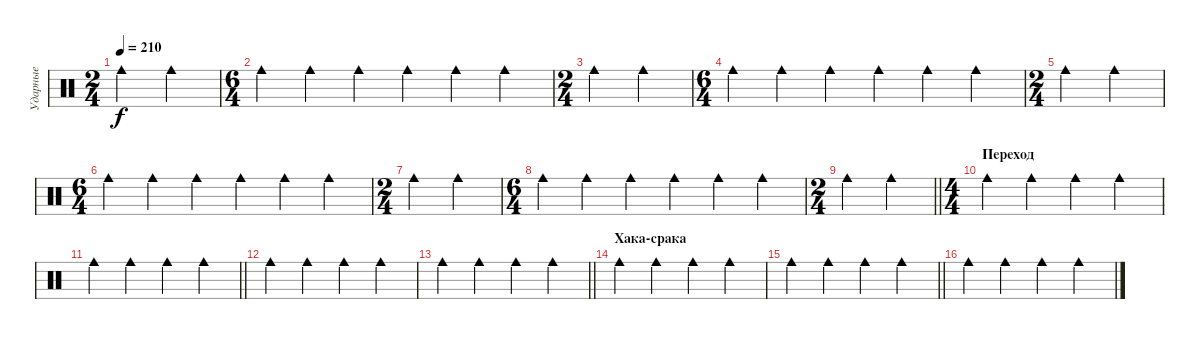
\track ("Ударные" "Ударные") {mute instrument percussion}
\staff {score}
\articulation defaults
\ts (2 4)
\tempo 210
\clef neutral
\ks c "Cowbell medium (hit)".4{dy f} "Cowbell medium (hit)".4
|
\ts (6 4)
"Cowbell medium (hit)".4 "Cowbell medium (hit)".4 "Cowbell medium (hit)".4 "Cowbell medium (hit)".4 "Cowbell medium (hit)".4 "Cowbell medium (hit)".4 |
\ts (2 4)
"Cowbell medium (hit)".4 "Cowbell medium (hit)".4 |
\ts (6 4)
"Cowbell medium (hit)".4 "Cowbell medium (hit)".4 "Cowbell medium (hit)".4 "Cowbell medium (hit)".4 "Cowbell medium (hit)".4 "Cowbell medium (hit)".4 |
\ts (2 4)
"Cowbell medium (hit)".4 "Cowbell medium (hit)".4 |
\ts (6 4)
"Cowbell medium (hit)".4 "Cowbell medium (hit)".4 "Cowbell medium (hit)".4 "Cowbell medium (hit)".4 "Cowbell medium (hit)".4 "Cowbell medium (hit)".4 |
\ts (2 4)
"Cowbell medium (hit)".4 "Cowbell medium (hit)".4 |
\ts (6 4)
"Cowbell medium (hit)".4 "Cowbell medium (hit)".4 "Cowbell medium (hit)".4 "Cowbell medium (hit)".4 "Cowbell medium (hit)".4 "Cowbell medium (hit)".4 |
\ts (2 4)
\barLineRight lightlight "Cowbell medium (hit)".4 "Cowbell medium (hit)".4
|
\ts (4 4)
\section ("" "Переход")
"Cowbell medium (hit)".4 "Cowbell medium (hit)".4 "Cowbell medium (hit)".4 "Cowbell medium (hit)".4 |
\barLineRight lightlight "Cowbell medium (hit)".4 "Cowbell medium (hit)".4 "Cowbell medium (hit)".4 "Cowbell medium (hit)".4
|
"Cowbell medium (hit)".4 "Cowbell medium (hit)".4 "Cowbell medium (hit)".4 "Cowbell medium (hit)".4 |
\barLineRight lightlight "Cowbell medium (hit)".4 "Cowbell medium (hit)".4 "Cowbell medium (hit)".4 "Cowbell medium (hit)".4
|
\section ("" "Хака-срака")
"Cowbell medium (hit)".4 "Cowbell medium (hit)".4 "Cowbell medium (hit)".4 "Cowbell medium (hit)".4 |
\barLineRight lightlight "Cowbell medium (hit)".4 "Cowbell medium (hit)".4 "Cowbell medium (hit)".4 "Cowbell medium (hit)".4
|
"Cowbell medium (hit)".4 "Cowbell medium (hit)".4 "Cowbell medium (hit)".4 "Cowbell medium (hit)".4
